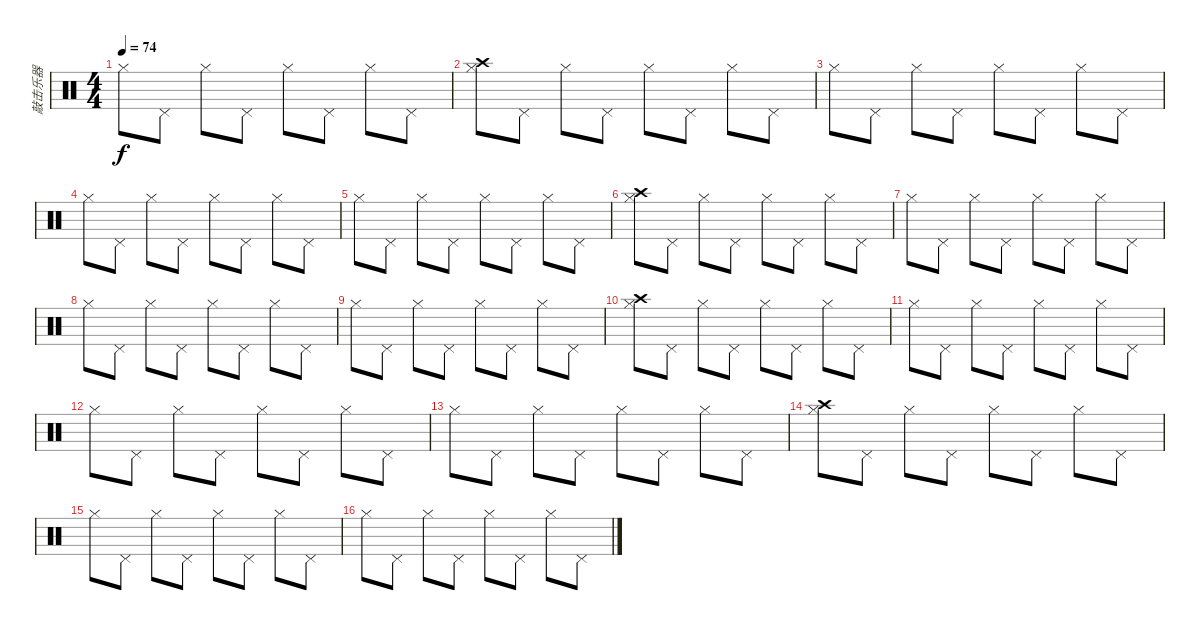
\track ("敲击乐器" "敲击乐器") {instrument percussion}
\staff {score}
\articulation defaults
\ts (4 4)
\tempo 74
\clef neutral
\ks c "Hi-Hat (closed)".8{dy f} "Pedal Hi-Hat (hit)".8 "Hi-Hat (closed)".8 "Pedal Hi-Hat (hit)".8 "Hi-Hat (closed)".8 "Pedal Hi-Hat (hit)".8 "Hi-Hat (closed)".8 "Pedal Hi-Hat (hit)".8
|
("Hi-Hat (closed)" "Crash high (hit)").8 "Pedal Hi-Hat (hit)".8 "Hi-Hat (closed)".8 "Pedal Hi-Hat (hit)".8 "Hi-Hat (closed)".8 "Pedal Hi-Hat (hit)".8 "Hi-Hat (closed)".8 "Pedal Hi-Hat (hit)".8 |
"Hi-Hat (closed)".8 "Pedal Hi-Hat (hit)".8 "Hi-Hat (closed)".8 "Pedal Hi-Hat (hit)".8 "Hi-Hat (closed)".8 "Pedal Hi-Hat (hit)".8 "Hi-Hat (closed)".8 "Pedal Hi-Hat (hit)".8 |
"Hi-Hat (closed)".8 "Pedal Hi-Hat (hit)".8 "Hi-Hat (closed)".8 "Pedal Hi-Hat (hit)".8 "Hi-Hat (closed)".8 "Pedal Hi-Hat (hit)".8 "Hi-Hat (closed)".8 "Pedal Hi-Hat (hit)".8 |
"Hi-Hat (closed)".8 "Pedal Hi-Hat (hit)".8 "Hi-Hat (closed)".8 "Pedal Hi-Hat (hit)".8 "Hi-Hat (closed)".8 "Pedal Hi-Hat (hit)".8 "Hi-Hat (closed)".8 "Pedal Hi-Hat (hit)".8 |
("Hi-Hat (closed)" "Crash high (hit)").8 "Pedal Hi-Hat (hit)".8 "Hi-Hat (closed)".8 "Pedal Hi-Hat (hit)".8 "Hi-Hat (closed)".8 "Pedal Hi-Hat (hit)".8 "Hi-Hat (closed)".8 "Pedal Hi-Hat (hit)".8 |
"Hi-Hat (closed)".8 "Pedal Hi-Hat (hit)".8 "Hi-Hat (closed)".8 "Pedal Hi-Hat (hit)".8 "Hi-Hat (closed)".8 "Pedal Hi-Hat (hit)".8 "Hi-Hat (closed)".8 "Pedal Hi-Hat (hit)".8 |
"Hi-Hat (closed)".8 "Pedal Hi-Hat (hit)".8 "Hi-Hat (closed)".8 "Pedal Hi-Hat (hit)".8 "Hi-Hat (closed)".8 "Pedal Hi-Hat (hit)".8 "Hi-Hat (closed)".8 "Pedal Hi-Hat (hit)".8 |
"Hi-Hat (closed)".8 "Pedal Hi-Hat (hit)".8 "Hi-Hat (closed)".8 "Pedal Hi-Hat (hit)".8 "Hi-Hat (closed)".8 "Pedal Hi-Hat (hit)".8 "Hi-Hat (closed)".8 "Pedal Hi-Hat (hit)".8 |
("Hi-Hat (closed)" "Crash high (hit)").8 "Pedal Hi-Hat (hit)".8 "Hi-Hat (closed)".8 "Pedal Hi-Hat (hit)".8 "Hi-Hat (closed)".8 "Pedal Hi-Hat (hit)".8 "Hi-Hat (closed)".8 "Pedal Hi-Hat (hit)".8 |
"Hi-Hat (closed)".8 "Pedal Hi-Hat (hit)".8 "Hi-Hat (closed)".8 "Pedal Hi-Hat (hit)".8 "Hi-Hat (closed)".8 "Pedal Hi-Hat (hit)".8 "Hi-Hat (closed)".8 "Pedal Hi-Hat (hit)".8 |
"Hi-Hat (closed)".8 "Pedal Hi-Hat (hit)".8 "Hi-Hat (closed)".8 "Pedal Hi-Hat (hit)".8 "Hi-Hat (closed)".8 "Pedal Hi-Hat (hit)".8 "Hi-Hat (closed)".8 "Pedal Hi-Hat (hit)".8 |
"Hi-Hat (closed)".8 "Pedal Hi-Hat (hit)".8 "Hi-Hat (closed)".8 "Pedal Hi-Hat (hit)".8 "Hi-Hat (closed)".8 "Pedal Hi-Hat (hit)".8 "Hi-Hat (closed)".8 "Pedal Hi-Hat (hit)".8 |
("Hi-Hat (closed)" "Crash high (hit)").8 "Pedal Hi-Hat (hit)".8 "Hi-Hat (closed)".8 "Pedal Hi-Hat (hit)".8 "Hi-Hat (closed)".8 "Pedal Hi-Hat (hit)".8 "Hi-Hat (closed)".8 "Pedal Hi-Hat (hit)".8 |
"Hi-Hat (closed)".8 "Pedal Hi-Hat (hit)".8 "Hi-Hat (closed)".8 "Pedal Hi-Hat (hit)".8 "Hi-Hat (closed)".8 "Pedal Hi-Hat (hit)".8 "Hi-Hat (closed)".8 "Pedal Hi-Hat (hit)".8 |
"Hi-Hat (closed)".8 "Pedal Hi-Hat (hit)".8 "Hi-Hat (closed)".8 "Pedal Hi-Hat (hit)".8 "Hi-Hat (closed)".8 "Pedal Hi-Hat (hit)".8 "Hi-Hat (closed)".8 "Pedal Hi-Hat (hit)".8
